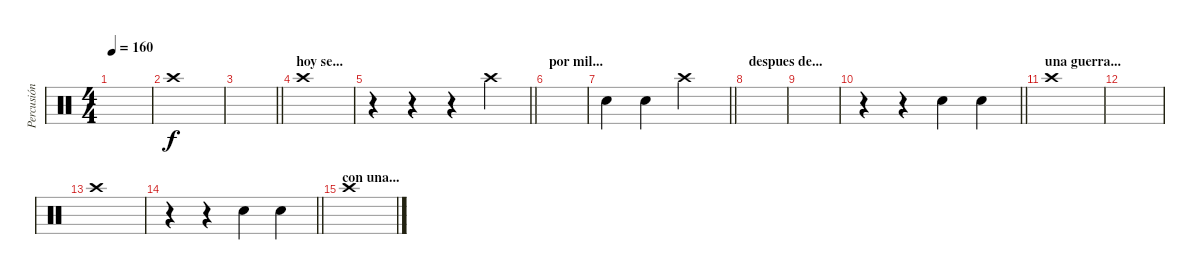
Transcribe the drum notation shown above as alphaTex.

\track ("Percusión" "Percusión") {instrument percussion}
\staff {score}
\articulation defaults
\ts (4 4)
\tempo 160
\clef neutral
\ks c
|
"Crash high (hit)".1 |
\barLineRight lightlight
|
\section ("" "hoy se...")
"Crash high (hit)".1 |
\barLineRight lightlight
r.4 r.4 r.4 "Crash high (hit)".4 |
\section ("" "por mil...")
|
\barLineRight lightlight "Snare (hit) 2".4 "Snare (hit) 2".4 "Crash high (hit)".2
|
\section ("" "despues de...")
|
|
\barLineRight lightlight
r.4 r.4 "Snare (hit) 2".4 "Snare (hit) 2".4 |
\section ("" "una guerra...")
"Crash high (hit)".1 |
|
"Crash high (hit)".1 |
\barLineRight lightlight
r.4 r.4 "Snare (hit) 2".4 "Snare (hit) 2".4 |
\section ("" "con una...")
"Crash high (hit)".1
